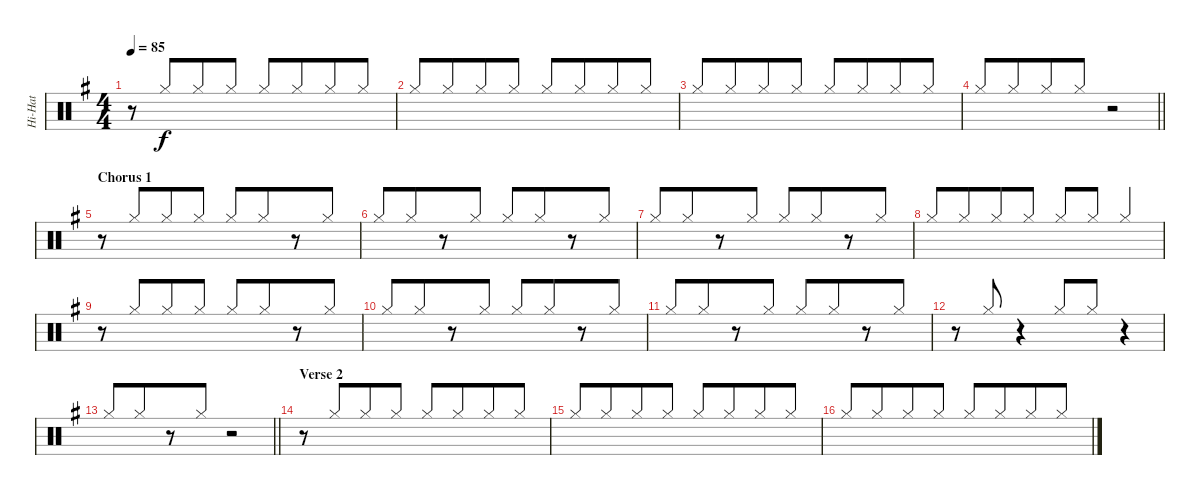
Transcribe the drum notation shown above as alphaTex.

\track ("Hi-Hat" "Hi-Hat") {instrument percussion}
\staff {score}
\articulation defaults
\ts (4 4)
\tempo 85
\clef neutral
\ks g
r.8{dy f} "Hi-Hat (closed)".8{beam Up beam merge} "Hi-Hat (closed)".8{beam Up} "Hi-Hat (closed)".8{beam Up} "Hi-Hat (closed)".8{beam Up} "Hi-Hat (closed)".8{beam Up beam merge} "Hi-Hat (closed)".8{beam Up} "Hi-Hat (closed)".8{beam Up} |
"Hi-Hat (closed)".8{beam Up} "Hi-Hat (closed)".8{beam Up beam merge} "Hi-Hat (closed)".8{beam Up} "Hi-Hat (closed)".8{beam Up} "Hi-Hat (closed)".8{beam Up} "Hi-Hat (closed)".8{beam Up beam merge} "Hi-Hat (closed)".8{beam Up} "Hi-Hat (closed)".8{beam Up} |
"Hi-Hat (closed)".8{beam Up} "Hi-Hat (closed)".8{beam Up beam merge} "Hi-Hat (closed)".8{beam Up} "Hi-Hat (closed)".8{beam Up} "Hi-Hat (closed)".8{beam Up} "Hi-Hat (closed)".8{beam Up beam merge} "Hi-Hat (closed)".8{beam Up} "Hi-Hat (closed)".8{beam Up} |
\barLineRight lightlight "Hi-Hat (closed)".8{beam Up} "Hi-Hat (closed)".8{beam Up beam merge} "Hi-Hat (closed)".8{beam Up} "Hi-Hat (closed)".8{beam Up}
r.2 |
\section ("" "Chorus 1")
r.8 "Hi-Hat (closed)".8{beam Up beam merge} "Hi-Hat (closed)".8{beam Up} "Hi-Hat (closed)".8{beam Up} "Hi-Hat (closed)".8{beam Up} "Hi-Hat (closed)".8{beam Up beam merge} r.8 "Hi-Hat (closed)".8{beam Up} |
"Hi-Hat (closed)".8{beam Up} "Hi-Hat (closed)".8{beam Up beam merge} r.8 "Hi-Hat (closed)".8{beam Up} "Hi-Hat (closed)".8{beam Up} "Hi-Hat (closed)".8{beam Up beam merge} r.8 "Hi-Hat (closed)".8{beam Up} |
"Hi-Hat (closed)".8{beam Up} "Hi-Hat (closed)".8{beam Up beam merge} r.8 "Hi-Hat (closed)".8{beam Up} "Hi-Hat (closed)".8{beam Up} "Hi-Hat (closed)".8{beam Up beam merge} r.8 "Hi-Hat (closed)".8{beam Up} |
"Hi-Hat (closed)".8{beam Up} "Hi-Hat (closed)".8{beam Up beam merge} "Hi-Hat (closed)".8{beam Up} "Hi-Hat (closed)".8{beam Up} "Hi-Hat (closed)".8{beam Up} "Hi-Hat (closed)".8{beam Up} "Hi-Hat (closed)".4{beam Up} |
r.8 "Hi-Hat (closed)".8{beam Up beam merge} "Hi-Hat (closed)".8{beam Up} "Hi-Hat (closed)".8{beam Up} "Hi-Hat (closed)".8{beam Up} "Hi-Hat (closed)".8{beam Up beam merge} r.8 "Hi-Hat (closed)".8{beam Up} |
"Hi-Hat (closed)".8{beam Up} "Hi-Hat (closed)".8{beam Up beam merge} r.8 "Hi-Hat (closed)".8{beam Up} "Hi-Hat (closed)".8{beam Up} "Hi-Hat (closed)".8{beam Up beam merge} r.8 "Hi-Hat (closed)".8{beam Up} |
"Hi-Hat (closed)".8{beam Up} "Hi-Hat (closed)".8{beam Up beam merge} r.8 "Hi-Hat (closed)".8{beam Up} "Hi-Hat (closed)".8{beam Up} "Hi-Hat (closed)".8{beam Up beam merge} r.8 "Hi-Hat (closed)".8{beam Up} |
r.8 "Hi-Hat (closed)".8{beam Up} r.4 "Hi-Hat (closed)".8{beam Up} "Hi-Hat (closed)".8{beam Up} r.4 |
\barLineRight lightlight "Hi-Hat (closed)".8{beam Up} "Hi-Hat (closed)".8{beam Up beam merge}
r.8 "Hi-Hat (closed)".8{beam Up} r.2 |
\section ("" "Verse 2")
r.8 "Hi-Hat (closed)".8{beam Up beam merge} "Hi-Hat (closed)".8{beam Up} "Hi-Hat (closed)".8{beam Up} "Hi-Hat (closed)".8{beam Up} "Hi-Hat (closed)".8{beam Up beam merge} "Hi-Hat (closed)".8{beam Up} "Hi-Hat (closed)".8{beam Up} |
"Hi-Hat (closed)".8{beam Up} "Hi-Hat (closed)".8{beam Up beam merge} "Hi-Hat (closed)".8{beam Up} "Hi-Hat (closed)".8{beam Up} "Hi-Hat (closed)".8{beam Up} "Hi-Hat (closed)".8{beam Up beam merge} "Hi-Hat (closed)".8{beam Up} "Hi-Hat (closed)".8{beam Up} |
"Hi-Hat (closed)".8{beam Up} "Hi-Hat (closed)".8{beam Up beam merge} "Hi-Hat (closed)".8{beam Up} "Hi-Hat (closed)".8{beam Up} "Hi-Hat (closed)".8{beam Up} "Hi-Hat (closed)".8{beam Up beam merge} "Hi-Hat (closed)".8{beam Up} "Hi-Hat (closed)".8{beam Up}
